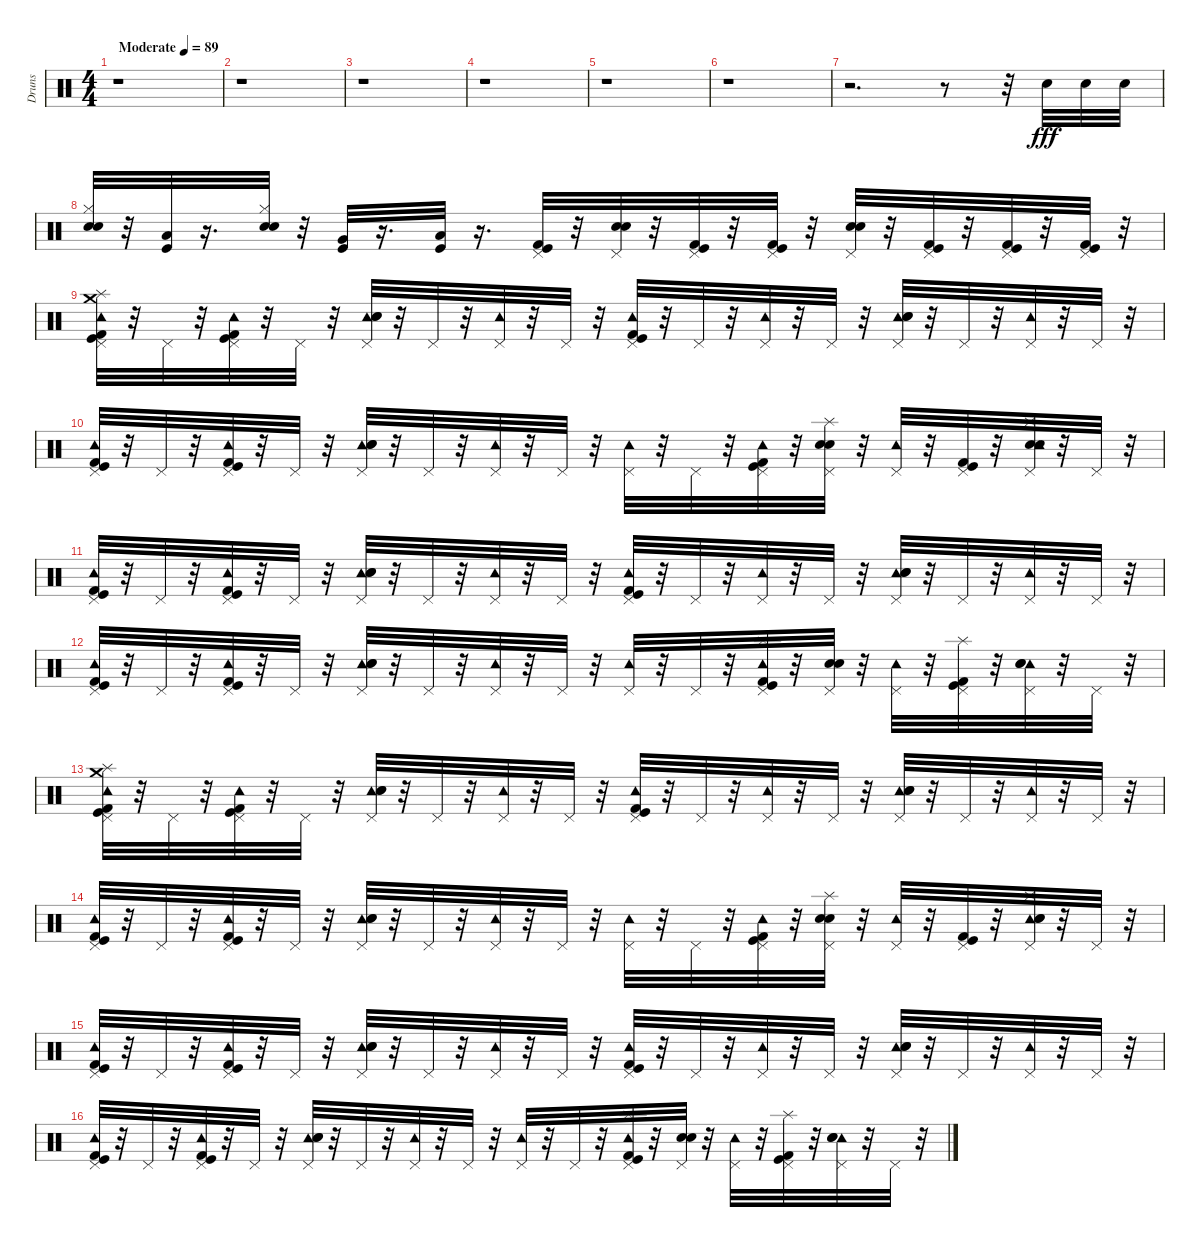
\track ("Druns" "Druns") {instrument percussion}
\staff {score}
\articulation defaults
\ts (4 4)
\tempo (89 "Moderate")
\clef neutral
\ks c
r.1{dy fff} |
r.1 |
r.1 |
r.1 |
r.1 |
r.1 |
r.2{d} r.8 r.32 "Snare (hit) 2".32 "Snare (hit) 2".32 "Snare (hit) 2".32 |
("Snare (hit) 2" "Hi-Hat (closed)" "Electric Snare (hit)").32 r.32 ("Kick (hit)" "Low Tom (hit)").32 r.16{d} ("Hi-Hat (closed)" "Electric Snare (hit)" "Snare (hit) 2").32 r.32 ("Kick (hit)" "Very Low Tom (hit)").32 r.16{d} ("Kick (hit)" "Low Floor Tom (hit)").32 r.16{d} ("Pedal Hi-Hat (hit)" "Kick (hit)" "Kick (hit) 2").32 r.32 ("Electric Snare (hit)" "Pedal Hi-Hat (hit)" "Snare (hit) 2").32 r.32 ("Pedal Hi-Hat (hit)" "Kick (hit)" "Kick (hit) 2").32 r.32 ("Kick (hit) 2" "Pedal Hi-Hat (hit)" "Kick (hit)").32 r.32 ("Pedal Hi-Hat (hit)" "Electric Snare (hit)" "Snare (hit) 2").32 r.32 ("Kick (hit)" "Kick (hit) 2" "Pedal Hi-Hat (hit)").32 r.32 ("Kick (hit) 2" "Pedal Hi-Hat (hit)" "Kick (hit)").32 r.32 ("Pedal Hi-Hat (hit)" "Kick (hit)" "Kick (hit) 2").32 r.32 |
("Kick (hit)" "Splash (hit)" "Tambourine (hit)" "Kick (hit) 2" "Crash medium (hit)" "Pedal Hi-Hat (hit)").32 r.32 "Pedal Hi-Hat (hit)".32 r.32 ("Kick (hit) 2" "Kick (hit)" "Tambourine (hit)" "Pedal Hi-Hat (hit)").32 r.32 "Pedal Hi-Hat (hit)".32 r.32 ("Tambourine (hit)" "Snare (hit) 2" "Electric Snare (hit)" "Pedal Hi-Hat (hit)").32 r.32 "Pedal Hi-Hat (hit)".32 r.32 ("Tambourine (hit)" "Pedal Hi-Hat (hit)").32 r.32 "Pedal Hi-Hat (hit)".32 r.32 ("Pedal Hi-Hat (hit)" "Kick (hit)" "Kick (hit) 2" "Tambourine (hit)").32 r.32 "Pedal Hi-Hat (hit)".32 r.32 ("Tambourine (hit)" "Pedal Hi-Hat (hit)").32 r.32 "Pedal Hi-Hat (hit)".32 r.32 ("Tambourine (hit)" "Pedal Hi-Hat (hit)" "Electric Snare (hit)" "Snare (hit) 2").32 r.32 "Pedal Hi-Hat (hit)".32 r.32 ("Tambourine (hit)" "Pedal Hi-Hat (hit)").32 r.32 "Pedal Hi-Hat (hit)".32 r.32 |
("Kick (hit)" "Pedal Hi-Hat (hit)" "Tambourine (hit)" "Kick (hit) 2").32 r.32 "Pedal Hi-Hat (hit)".32 r.32 ("Tambourine (hit)" "Kick (hit) 2" "Kick (hit)" "Pedal Hi-Hat (hit)").32 r.32 "Pedal Hi-Hat (hit)".32 r.32 ("Tambourine (hit)" "Snare (hit) 2" "Pedal Hi-Hat (hit)" "Electric Snare (hit)").32 r.32 "Pedal Hi-Hat (hit)".32 r.32 ("Tambourine (hit)" "Pedal Hi-Hat (hit)").32 r.32 "Pedal Hi-Hat (hit)".32 r.32 ("Tambourine (hit)" "Pedal Hi-Hat (hit)").32 r.32 "Pedal Hi-Hat (hit)".32 r.32 ("Tambourine (hit)" "Pedal Hi-Hat (hit)" "Kick (hit) 2" "Kick (hit)").32 r.32 ("Splash (hit)" "Electric Snare (hit)" "Snare (hit) 2" "Pedal Hi-Hat (hit)").32 r.32 ("Tambourine (hit)" "Pedal Hi-Hat (hit)").32 r.32 ("Kick (hit) 2" "Kick (hit)" "Pedal Hi-Hat (hit)").32 r.32 ("Snare (hit) 2" "Splash (hit)" "Tambourine (hit)" "Pedal Hi-Hat (hit)" "Electric Snare (hit)").32 r.32 "Pedal Hi-Hat (hit)".32 r.32 |
("Tambourine (hit)" "Kick (hit) 2" "Kick (hit)" "Pedal Hi-Hat (hit)").32 r.32 "Pedal Hi-Hat (hit)".32 r.32 ("Tambourine (hit)" "Pedal Hi-Hat (hit)" "Kick (hit) 2" "Kick (hit)").32 r.32 "Pedal Hi-Hat (hit)".32 r.32 ("Tambourine (hit)" "Snare (hit) 2" "Electric Snare (hit)" "Pedal Hi-Hat (hit)").32 r.32 "Pedal Hi-Hat (hit)".32 r.32 ("Tambourine (hit)" "Pedal Hi-Hat (hit)").32 r.32 "Pedal Hi-Hat (hit)".32 r.32 ("Tambourine (hit)" "Kick (hit) 2" "Kick (hit)" "Pedal Hi-Hat (hit)").32 r.32 "Pedal Hi-Hat (hit)".32 r.32 ("Tambourine (hit)" "Pedal Hi-Hat (hit)").32 r.32 "Pedal Hi-Hat (hit)".32 r.32 ("Tambourine (hit)" "Electric Snare (hit)" "Snare (hit) 2" "Pedal Hi-Hat (hit)").32 r.32 "Pedal Hi-Hat (hit)".32 r.32 ("Tambourine (hit)" "Pedal Hi-Hat (hit)").32 r.32 "Pedal Hi-Hat (hit)".32 r.32 |
("Tambourine (hit)" "Kick (hit) 2" "Kick (hit)" "Pedal Hi-Hat (hit)").32 r.32 "Pedal Hi-Hat (hit)".32 r.32 ("Tambourine (hit)" "Kick (hit) 2" "Kick (hit)" "Pedal Hi-Hat (hit)").32 r.32 "Pedal Hi-Hat (hit)".32 r.32 ("Tambourine (hit)" "Electric Snare (hit)" "Snare (hit) 2" "Pedal Hi-Hat (hit)").32 r.32 "Pedal Hi-Hat (hit)".32 r.32 ("Tambourine (hit)" "Pedal Hi-Hat (hit)").32 r.32 "Pedal Hi-Hat (hit)".32 r.32 ("Tambourine (hit)" "Pedal Hi-Hat (hit)").32 r.32 "Pedal Hi-Hat (hit)".32 r.32 ("Tambourine (hit)" "Kick (hit) 2" "Kick (hit)" "Pedal Hi-Hat (hit)" "Splash (hit)").32 r.32 ("Electric Snare (hit)" "Snare (hit) 2" "Pedal Hi-Hat (hit)").32 r.32 ("Tambourine (hit)" "Pedal Hi-Hat (hit)").32 r.32 ("Kick (hit) 2" "Kick (hit)" "Pedal Hi-Hat (hit)" "Splash (hit)").32 r.32 ("Tambourine (hit)" "Snare (hit) 2" "Electric Snare (hit)" "Pedal Hi-Hat (hit)").32 r.32 "Pedal Hi-Hat (hit)".32 r.32 |
("Tambourine (hit)" "Kick (hit) 2" "Kick (hit)" "Splash (hit)" "Crash medium (hit)" "Pedal Hi-Hat (hit)").32 r.32 "Pedal Hi-Hat (hit)".32 r.32 ("Tambourine (hit)" "Pedal Hi-Hat (hit)" "Kick (hit) 2" "Kick (hit)").32 r.32 "Pedal Hi-Hat (hit)".32 r.32 ("Tambourine (hit)" "Snare (hit) 2" "Electric Snare (hit)" "Pedal Hi-Hat (hit)").32 r.32 "Pedal Hi-Hat (hit)".32 r.32 ("Tambourine (hit)" "Pedal Hi-Hat (hit)").32 r.32 "Pedal Hi-Hat (hit)".32 r.32 ("Tambourine (hit)" "Kick (hit) 2" "Kick (hit)" "Pedal Hi-Hat (hit)").32 r.32 "Pedal Hi-Hat (hit)".32 r.32 ("Tambourine (hit)" "Pedal Hi-Hat (hit)").32 r.32 "Pedal Hi-Hat (hit)".32 r.32 ("Tambourine (hit)" "Electric Snare (hit)" "Snare (hit) 2" "Pedal Hi-Hat (hit)").32 r.32 "Pedal Hi-Hat (hit)".32 r.32 ("Tambourine (hit)" "Pedal Hi-Hat (hit)").32 r.32 "Pedal Hi-Hat (hit)".32 r.32 |
("Tambourine (hit)" "Kick (hit) 2" "Kick (hit)" "Pedal Hi-Hat (hit)").32 r.32 "Pedal Hi-Hat (hit)".32 r.32 ("Tambourine (hit)" "Kick (hit) 2" "Kick (hit)" "Pedal Hi-Hat (hit)").32 r.32 "Pedal Hi-Hat (hit)".32 r.32 ("Tambourine (hit)" "Electric Snare (hit)" "Snare (hit) 2" "Pedal Hi-Hat (hit)").32 r.32 "Pedal Hi-Hat (hit)".32 r.32 ("Tambourine (hit)" "Pedal Hi-Hat (hit)").32 r.32 "Pedal Hi-Hat (hit)".32 r.32 ("Tambourine (hit)" "Pedal Hi-Hat (hit)").32 r.32 "Pedal Hi-Hat (hit)".32 r.32 ("Tambourine (hit)" "Kick (hit) 2" "Kick (hit)" "Pedal Hi-Hat (hit)").32 r.32 ("Splash (hit)" "Electric Snare (hit)" "Snare (hit) 2" "Pedal Hi-Hat (hit)").32 r.32 ("Tambourine (hit)" "Pedal Hi-Hat (hit)").32 r.32 ("Kick (hit) 2" "Kick (hit)" "Pedal Hi-Hat (hit)").32 r.32 ("Tambourine (hit)" "Splash (hit)" "Snare (hit) 2" "Electric Snare (hit)" "Pedal Hi-Hat (hit)").32 r.32 "Pedal Hi-Hat (hit)".32 r.32 |
("Tambourine (hit)" "Kick (hit) 2" "Kick (hit)" "Pedal Hi-Hat (hit)").32 r.32 "Pedal Hi-Hat (hit)".32 r.32 ("Tambourine (hit)" "Pedal Hi-Hat (hit)" "Kick (hit) 2" "Kick (hit)").32 r.32 "Pedal Hi-Hat (hit)".32 r.32 ("Tambourine (hit)" "Snare (hit) 2" "Electric Snare (hit)" "Pedal Hi-Hat (hit)").32 r.32 "Pedal Hi-Hat (hit)".32 r.32 ("Tambourine (hit)" "Pedal Hi-Hat (hit)").32 r.32 "Pedal Hi-Hat (hit)".32 r.32 ("Tambourine (hit)" "Kick (hit) 2" "Kick (hit)" "Pedal Hi-Hat (hit)").32 r.32 "Pedal Hi-Hat (hit)".32 r.32 ("Tambourine (hit)" "Pedal Hi-Hat (hit)").32 r.32 "Pedal Hi-Hat (hit)".32 r.32 ("Tambourine (hit)" "Electric Snare (hit)" "Snare (hit) 2" "Pedal Hi-Hat (hit)").32 r.32 "Pedal Hi-Hat (hit)".32 r.32 ("Tambourine (hit)" "Pedal Hi-Hat (hit)").32 r.32 "Pedal Hi-Hat (hit)".32 r.32 |
("Tambourine (hit)" "Kick (hit) 2" "Kick (hit)" "Pedal Hi-Hat (hit)").32 r.32 "Pedal Hi-Hat (hit)".32 r.32 ("Tambourine (hit)" "Kick (hit) 2" "Kick (hit)" "Pedal Hi-Hat (hit)").32 r.32 "Pedal Hi-Hat (hit)".32 r.32 ("Tambourine (hit)" "Electric Snare (hit)" "Snare (hit) 2" "Pedal Hi-Hat (hit)").32 r.32 "Pedal Hi-Hat (hit)".32 r.32 ("Tambourine (hit)" "Pedal Hi-Hat (hit)").32 r.32 "Pedal Hi-Hat (hit)".32 r.32 ("Tambourine (hit)" "Pedal Hi-Hat (hit)").32 r.32 "Pedal Hi-Hat (hit)".32 r.32 ("Tambourine (hit)" "Kick (hit) 2" "Kick (hit)" "Pedal Hi-Hat (hit)" "Splash (hit)").32 r.32 ("Electric Snare (hit)" "Snare (hit) 2" "Pedal Hi-Hat (hit)").32 r.32 ("Tambourine (hit)" "Pedal Hi-Hat (hit)").32 r.32 ("Kick (hit) 2" "Kick (hit)" "Pedal Hi-Hat (hit)" "Splash (hit)").32 r.32 ("Tambourine (hit)" "Snare (hit) 2" "Electric Snare (hit)" "Pedal Hi-Hat (hit)").32 r.32 "Pedal Hi-Hat (hit)".32 r.32
